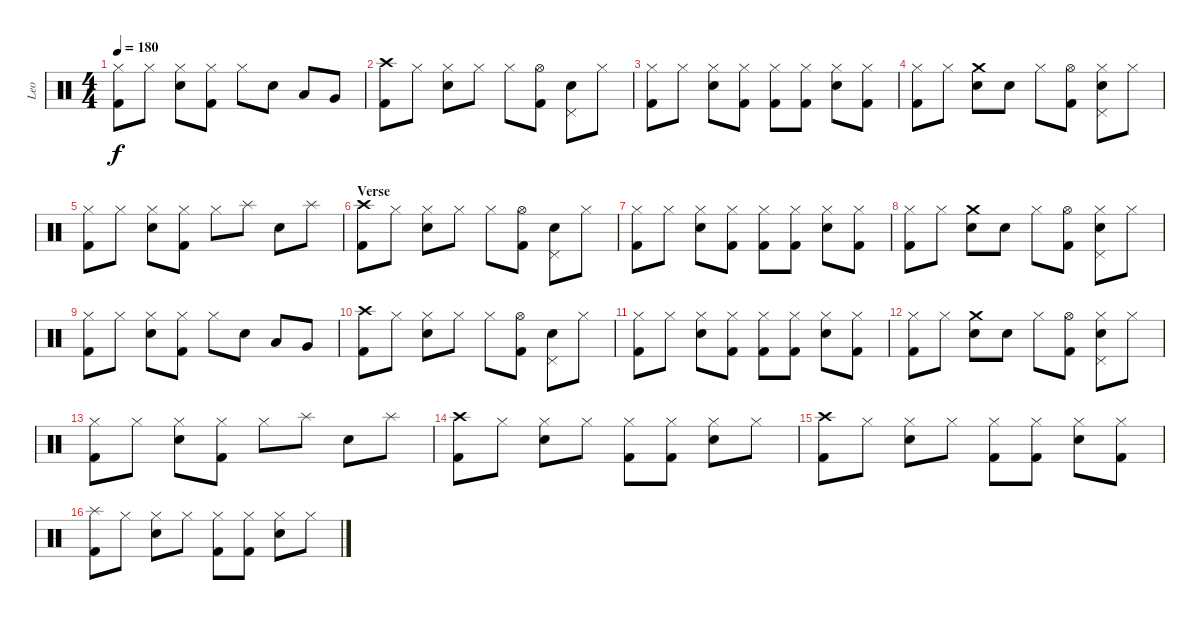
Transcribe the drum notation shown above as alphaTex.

\track ("Leo" "Leo") {instrument percussion}
\staff {score}
\articulation defaults
\ts (4 4)
\tempo 180
\clef neutral
\ks c
("Hi-Hat (closed)" "Kick (hit) 2").8{dy f} "Hi-Hat (closed)".8 ("Hi-Hat (closed)" "Electric Snare (hit)").8 ("Hi-Hat (closed)" "Kick (hit) 2").8 "Hi-Hat (closed)".8 "Electric Snare (hit)".8 "Low Tom (hit)".8 "Very Low Tom (hit)".8 |
("Crash high (hit)" "Kick (hit) 2").8 "Hi-Hat (closed)".8 ("Hi-Hat (closed)" "Electric Snare (hit)").8 "Hi-Hat (closed)".8 "Hi-Hat (closed)".8 ("Hi-Hat (open)" "Kick (hit) 2").8 ("Pedal Hi-Hat (hit)" "Electric Snare (hit)").8 "Hi-Hat (closed)".8 |
("Hi-Hat (closed)" "Kick (hit) 2").8 "Hi-Hat (closed)".8 ("Hi-Hat (closed)" "Electric Snare (hit)").8 ("Hi-Hat (closed)" "Kick (hit) 2").8 ("Hi-Hat (closed)" "Kick (hit) 2").8 ("Hi-Hat (closed)" "Kick (hit) 2").8 ("Hi-Hat (closed)" "Electric Snare (hit)").8 ("Hi-Hat (closed)" "Kick (hit) 2").8 |
("Hi-Hat (closed)" "Kick (hit) 2").8 "Hi-Hat (closed)".8 ("Crash medium (hit)" "Electric Snare (hit)").8 "Electric Snare (hit)".8 "Hi-Hat (closed)".8 ("Hi-Hat (open)" "Kick (hit) 2").8 ("Hi-Hat (closed)" "Electric Snare (hit)" "Pedal Hi-Hat (hit)").8 "Hi-Hat (closed)".8 |
("Hi-Hat (closed)" "Kick (hit) 2").8 "Hi-Hat (closed)".8 ("Hi-Hat (closed)" "Electric Snare (hit)").8 ("Hi-Hat (closed)" "Kick (hit) 2").8 "Hi-Hat (closed)".8 "Splash (hit)".8 "Electric Snare (hit)".8 "Splash (hit)".8 |
\section ("" "Verse")
("Crash high (hit)" "Kick (hit) 2").8 "Hi-Hat (closed)".8 ("Hi-Hat (closed)" "Electric Snare (hit)").8 "Hi-Hat (closed)".8 "Hi-Hat (closed)".8 ("Hi-Hat (open)" "Kick (hit) 2").8 ("Pedal Hi-Hat (hit)" "Electric Snare (hit)").8 "Hi-Hat (closed)".8 |
("Hi-Hat (closed)" "Kick (hit) 2").8 "Hi-Hat (closed)".8 ("Hi-Hat (closed)" "Electric Snare (hit)").8 ("Hi-Hat (closed)" "Kick (hit) 2").8 ("Hi-Hat (closed)" "Kick (hit) 2").8 ("Hi-Hat (closed)" "Kick (hit) 2").8 ("Hi-Hat (closed)" "Electric Snare (hit)").8 ("Hi-Hat (closed)" "Kick (hit) 2").8 |
("Hi-Hat (closed)" "Kick (hit) 2").8 "Hi-Hat (closed)".8 ("Crash medium (hit)" "Electric Snare (hit)").8 "Electric Snare (hit)".8 "Hi-Hat (closed)".8 ("Hi-Hat (open)" "Kick (hit) 2").8 ("Hi-Hat (closed)" "Electric Snare (hit)" "Pedal Hi-Hat (hit)").8 "Hi-Hat (closed)".8 |
("Hi-Hat (closed)" "Kick (hit) 2").8 "Hi-Hat (closed)".8 ("Hi-Hat (closed)" "Electric Snare (hit)").8 ("Hi-Hat (closed)" "Kick (hit) 2").8 "Hi-Hat (closed)".8 "Electric Snare (hit)".8 "Low Tom (hit)".8 "Very Low Tom (hit)".8 |
("Crash high (hit)" "Kick (hit) 2").8 "Hi-Hat (closed)".8 ("Hi-Hat (closed)" "Electric Snare (hit)").8 "Hi-Hat (closed)".8 "Hi-Hat (closed)".8 ("Hi-Hat (open)" "Kick (hit) 2").8 ("Pedal Hi-Hat (hit)" "Electric Snare (hit)").8 "Hi-Hat (closed)".8 |
("Hi-Hat (closed)" "Kick (hit) 2").8 "Hi-Hat (closed)".8 ("Hi-Hat (closed)" "Electric Snare (hit)").8 ("Hi-Hat (closed)" "Kick (hit) 2").8 ("Hi-Hat (closed)" "Kick (hit) 2").8 ("Hi-Hat (closed)" "Kick (hit) 2").8 ("Hi-Hat (closed)" "Electric Snare (hit)").8 ("Hi-Hat (closed)" "Kick (hit) 2").8 |
("Hi-Hat (closed)" "Kick (hit) 2").8 "Hi-Hat (closed)".8 ("Crash medium (hit)" "Electric Snare (hit)").8 "Electric Snare (hit)".8 "Hi-Hat (closed)".8 ("Hi-Hat (open)" "Kick (hit) 2").8 ("Hi-Hat (closed)" "Electric Snare (hit)" "Pedal Hi-Hat (hit)").8 "Hi-Hat (closed)".8 |
("Hi-Hat (closed)" "Kick (hit) 2").8 "Hi-Hat (closed)".8 ("Hi-Hat (closed)" "Electric Snare (hit)").8 ("Hi-Hat (closed)" "Kick (hit) 2").8 "Hi-Hat (closed)".8 "Splash (hit)".8 "Electric Snare (hit)".8 "Splash (hit)".8 |
("Crash high (hit)" "Kick (hit) 2").8 "Hi-Hat (closed)".8 ("Hi-Hat (closed)" "Electric Snare (hit)").8 "Hi-Hat (closed)".8 ("Hi-Hat (closed)" "Kick (hit) 2").8 ("Hi-Hat (closed)" "Kick (hit) 2").8 ("Hi-Hat (closed)" "Electric Snare (hit)").8 "Hi-Hat (closed)".8 |
("Crash high (hit)" "Kick (hit) 2").8 "Hi-Hat (closed)".8 ("Hi-Hat (closed)" "Electric Snare (hit)").8 "Hi-Hat (closed)".8 ("Hi-Hat (closed)" "Kick (hit) 2").8 ("Hi-Hat (closed)" "Kick (hit) 2").8 ("Hi-Hat (closed)" "Electric Snare (hit)").8 ("Hi-Hat (closed)" "Kick (hit) 2").8 |
("Splash (hit)" "Kick (hit) 2").8 "Hi-Hat (closed)".8 ("Hi-Hat (closed)" "Electric Snare (hit)").8 "Hi-Hat (closed)".8 ("Hi-Hat (closed)" "Kick (hit) 2").8 ("Hi-Hat (closed)" "Kick (hit) 2").8 ("Hi-Hat (closed)" "Electric Snare (hit)").8 "Hi-Hat (closed)".8
